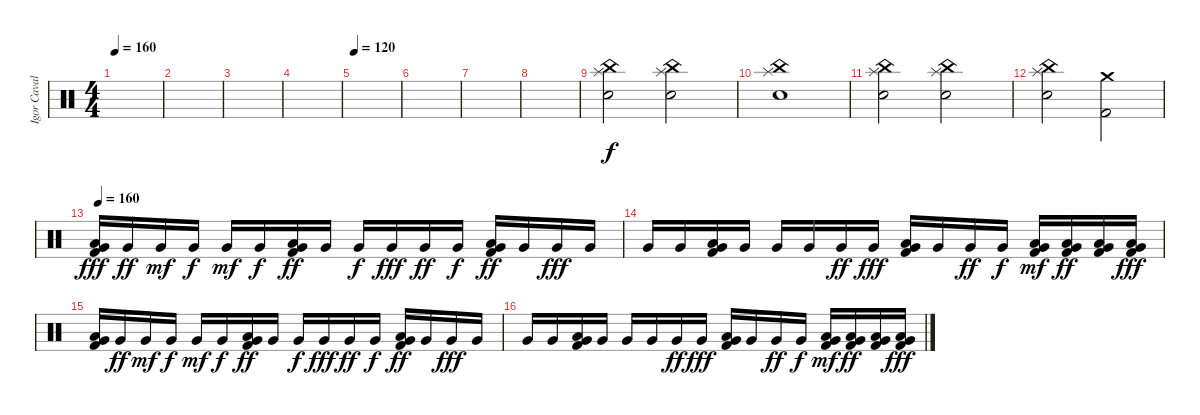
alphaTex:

\track ("Igor Cavalera" "Igor Caval") {instrument percussion}
\staff {score}
\articulation defaults
\ts (4 4)
\tempo 160
\tempo 132
\tempo 160
\clef neutral
\ks c
|
|
|
|
\tempo 120
|
|
|
|
("Splash (hit)" "China (hit)" "Electric Snare (hit)").2 ("Splash (hit)" "China (hit)" "Electric Snare (hit)").2 |
("Splash (hit)" "China (hit)" "Electric Snare (hit)").1 |
("Splash (hit)" "China (hit)" "Electric Snare (hit)").2 ("Splash (hit)" "China (hit)" "Electric Snare (hit)").2 |
("Splash (hit)" "China (hit)" "Electric Snare (hit)").2 ("Crash medium (hit)" "Kick (hit) 2").2{dy f} |
\tempo 180
\tempo 160
("Low Floor Tom (hit)" "Very Low Tom (hit)" "Kick (hit) 2").16{dy fff} "Very Low Tom (hit)".16{dy ff} "Very Low Tom (hit)".16{dy mf} "Very Low Tom (hit)".16{dy f} "Very Low Tom (hit)".16{dy mf} "Very Low Tom (hit)".16{dy f} ("Low Floor Tom (hit)" "Very Low Tom (hit)" "Kick (hit) 2").16{dy ff} "Very Low Tom (hit)".16 "Very Low Tom (hit)".16{dy f} "Very Low Tom (hit)".16{dy fff} "Very Low Tom (hit)".16{dy ff} "Very Low Tom (hit)".16{dy f} ("Low Floor Tom (hit)" "Very Low Tom (hit)" "Kick (hit) 2").16{dy ff} "Very Low Tom (hit)".16 "Very Low Tom (hit)".16{dy fff} "Very Low Tom (hit)".16 |
"Very Low Tom (hit)".16 "Very Low Tom (hit)".16 ("Low Floor Tom (hit)" "Very Low Tom (hit)" "Kick (hit) 2").16 "Very Low Tom (hit)".16 "Very Low Tom (hit)".16 "Very Low Tom (hit)".16 "Very Low Tom (hit)".16{dy ff} "Very Low Tom (hit)".16{dy fff} ("Kick (hit) 2" "Very Low Tom (hit)" "Low Floor Tom (hit)").16 "Very Low Tom (hit)".16 "Very Low Tom (hit)".16{dy ff} "Very Low Tom (hit)".16{dy f} ("Kick (hit) 2" "Very Low Tom (hit)" "Low Floor Tom (hit)").16{dy mf} ("Low Floor Tom (hit)" "Very Low Tom (hit)" "Kick (hit) 2").16{dy ff} ("Low Floor Tom (hit)" "Very Low Tom (hit)" "Kick (hit) 2").16 ("Low Floor Tom (hit)" "Very Low Tom (hit)" "Kick (hit) 2").16{dy fff} |
("Low Floor Tom (hit)" "Very Low Tom (hit)" "Kick (hit) 2").16 "Very Low Tom (hit)".16{dy ff} "Very Low Tom (hit)".16{dy mf} "Very Low Tom (hit)".16{dy f} "Very Low Tom (hit)".16{dy mf} "Very Low Tom (hit)".16{dy f} ("Low Floor Tom (hit)" "Very Low Tom (hit)" "Kick (hit) 2").16{dy ff} "Very Low Tom (hit)".16 "Very Low Tom (hit)".16{dy f} "Very Low Tom (hit)".16{dy fff} "Very Low Tom (hit)".16{dy ff} "Very Low Tom (hit)".16{dy f} ("Low Floor Tom (hit)" "Very Low Tom (hit)" "Kick (hit) 2").16{dy ff} "Very Low Tom (hit)".16 "Very Low Tom (hit)".16{dy fff} "Very Low Tom (hit)".16 |
"Very Low Tom (hit)".16 "Very Low Tom (hit)".16 ("Low Floor Tom (hit)" "Very Low Tom (hit)" "Kick (hit) 2").16 "Very Low Tom (hit)".16 "Very Low Tom (hit)".16 "Very Low Tom (hit)".16 "Very Low Tom (hit)".16{dy ff} "Very Low Tom (hit)".16{dy fff} ("Kick (hit) 2" "Very Low Tom (hit)" "Low Floor Tom (hit)").16 "Very Low Tom (hit)".16 "Very Low Tom (hit)".16{dy ff} "Very Low Tom (hit)".16{dy f} ("Kick (hit) 2" "Very Low Tom (hit)" "Low Floor Tom (hit)").16{dy mf} ("Low Floor Tom (hit)" "Very Low Tom (hit)" "Kick (hit) 2").16{dy ff} ("Low Floor Tom (hit)" "Very Low Tom (hit)" "Kick (hit) 2").16 ("Low Floor Tom (hit)" "Very Low Tom (hit)" "Kick (hit) 2").16{dy fff}
